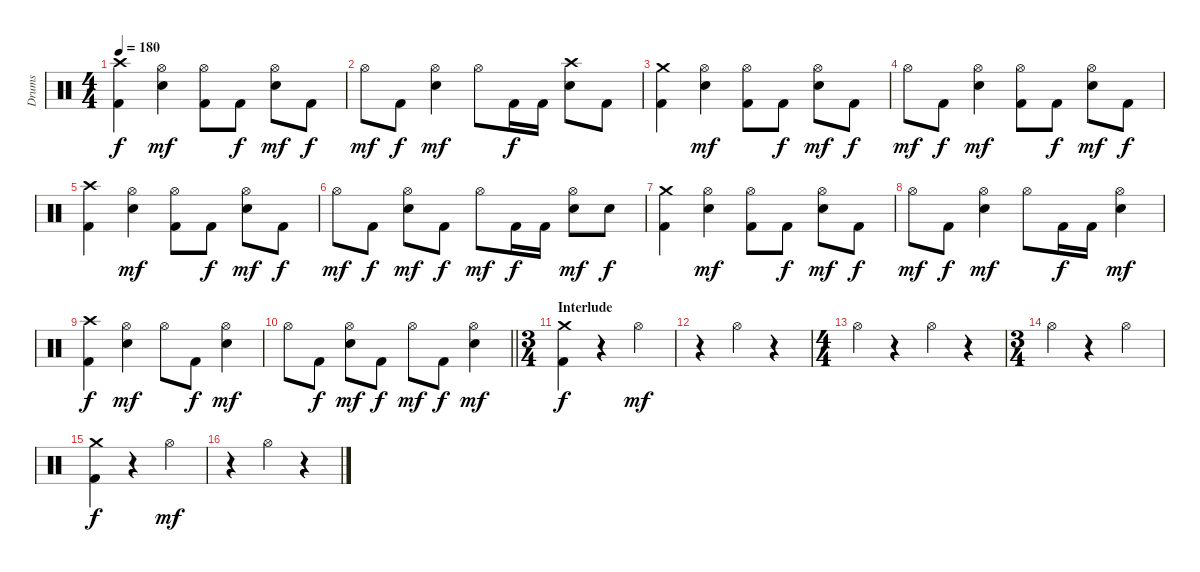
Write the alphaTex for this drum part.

\track ("Drums" "Drums") {instrument percussion}
\staff {score}
\articulation defaults
\ts (4 4)
\tempo 180
\clef neutral
\ks c
("Kick (hit) 2" "Crash high (hit)").4{dy f} ("Hi-Hat (open)" "Electric Snare (hit)").4{dy mf} ("Kick (hit) 2" "Hi-Hat (open)").8 "Kick (hit) 2".8{dy f} ("Hi-Hat (open)" "Electric Snare (hit)").8{dy mf} "Kick (hit) 2".8{dy f} |
"Hi-Hat (open)".8{dy mf} "Kick (hit) 2".8{dy f} ("Hi-Hat (open)" "Electric Snare (hit)").4{dy mf} "Hi-Hat (open)".8 "Kick (hit) 2".16{dy f} "Kick (hit) 2".16 ("Crash high (hit)" "Electric Snare (hit)").8 "Kick (hit) 2".8 |
("Kick (hit) 2" "Crash medium (hit)").4 ("Hi-Hat (open)" "Electric Snare (hit)").4{dy mf} ("Kick (hit) 2" "Hi-Hat (open)").8 "Kick (hit) 2".8{dy f} ("Hi-Hat (open)" "Electric Snare (hit)").8{dy mf} "Kick (hit) 2".8{dy f} |
"Hi-Hat (open)".8{dy mf} "Kick (hit) 2".8{dy f} ("Hi-Hat (open)" "Electric Snare (hit)").4{dy mf} ("Kick (hit) 2" "Hi-Hat (open)").8 "Kick (hit) 2".8{dy f} ("Hi-Hat (open)" "Electric Snare (hit)").8{dy mf} "Kick (hit) 2".8{dy f} |
("Kick (hit) 2" "Crash high (hit)").4 ("Hi-Hat (open)" "Electric Snare (hit)").4{dy mf} ("Kick (hit) 2" "Hi-Hat (open)").8 "Kick (hit) 2".8{dy f} ("Hi-Hat (open)" "Electric Snare (hit)").8{dy mf} "Kick (hit) 2".8{dy f} |
"Hi-Hat (open)".8{dy mf} "Kick (hit) 2".8{dy f} ("Hi-Hat (open)" "Electric Snare (hit)").8{dy mf} "Kick (hit) 2".8{dy f} "Hi-Hat (open)".8{dy mf} "Kick (hit) 2".16{dy f} "Kick (hit) 2".16 ("Hi-Hat (open)" "Electric Snare (hit)").8{dy mf} "Electric Snare (hit)".8{dy f} |
("Kick (hit) 2" "Crash medium (hit)").4 ("Hi-Hat (open)" "Electric Snare (hit)").4{dy mf} ("Kick (hit) 2" "Hi-Hat (open)").8 "Kick (hit) 2".8{dy f} ("Hi-Hat (open)" "Electric Snare (hit)").8{dy mf} "Kick (hit) 2".8{dy f} |
"Hi-Hat (open)".8{dy mf} "Kick (hit) 2".8{dy f} ("Hi-Hat (open)" "Electric Snare (hit)").4{dy mf} "Hi-Hat (open)".8 "Kick (hit) 2".16{dy f} "Kick (hit) 2".16 ("Hi-Hat (open)" "Electric Snare (hit)").4{dy mf} |
("Kick (hit) 2" "Crash high (hit)").4{dy f} ("Hi-Hat (open)" "Electric Snare (hit)").4{dy mf} "Hi-Hat (open)".8 "Kick (hit) 2".8{dy f} ("Hi-Hat (open)" "Electric Snare (hit)").4{dy mf} |
\barLineRight lightlight "Hi-Hat (open)".8 "Kick (hit) 2".8{dy f}
("Hi-Hat (open)" "Electric Snare (hit)").8{dy mf} "Kick (hit) 2".8{dy f} "Hi-Hat (open)".8{dy mf} "Kick (hit) 2".8{dy f} ("Hi-Hat (open)" "Electric Snare (hit)").4{dy mf} |
\ts (3 4)
\section ("" "Interlude")
("Kick (hit) 2" "Crash medium (hit)").4{dy f} r.4 "Hi-Hat (open)".4{dy mf} |
r.4 "Hi-Hat (open)".4 r.4 |
\ts (4 4)
"Hi-Hat (open)".4 r.4 "Hi-Hat (open)".4 r.4 |
\ts (3 4)
"Hi-Hat (open)".4 r.4 "Hi-Hat (open)".4 |
("Kick (hit) 2" "Crash medium (hit)").4{dy f} r.4 "Hi-Hat (open)".4{dy mf} |
r.4 "Hi-Hat (open)".4 r.4
